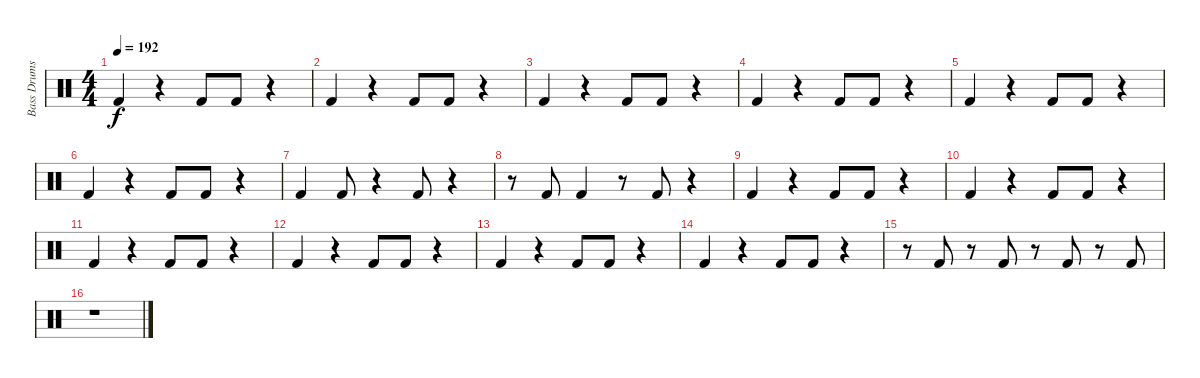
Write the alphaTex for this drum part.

\track ("Bass Drums" "Bass Drums") {instrument percussion}
\staff {score}
\articulation defaults
\ts (4 4)
\tempo 192
\clef neutral
\ks c "Kick (hit) 2".4{dy f}
r.4 "Kick (hit) 2".8 "Kick (hit) 2".8 r.4 |
"Kick (hit) 2".4 r.4 "Kick (hit) 2".8 "Kick (hit) 2".8 r.4 |
"Kick (hit) 2".4 r.4 "Kick (hit) 2".8 "Kick (hit) 2".8 r.4 |
"Kick (hit) 2".4 r.4 "Kick (hit) 2".8 "Kick (hit) 2".8 r.4 |
"Kick (hit) 2".4 r.4 "Kick (hit) 2".8 "Kick (hit) 2".8 r.4 |
"Kick (hit) 2".4 r.4 "Kick (hit) 2".8 "Kick (hit) 2".8 r.4 |
"Kick (hit) 2".4 "Kick (hit) 2".8 r.4 "Kick (hit) 2".8 r.4 |
r.8 "Kick (hit) 2".8 "Kick (hit) 2".4 r.8 "Kick (hit) 2".8 r.4 |
"Kick (hit) 2".4 r.4 "Kick (hit) 2".8 "Kick (hit) 2".8 r.4 |
"Kick (hit) 2".4 r.4 "Kick (hit) 2".8 "Kick (hit) 2".8 r.4 |
"Kick (hit) 2".4 r.4 "Kick (hit) 2".8 "Kick (hit) 2".8 r.4 |
"Kick (hit) 2".4 r.4 "Kick (hit) 2".8 "Kick (hit) 2".8 r.4 |
"Kick (hit) 2".4 r.4 "Kick (hit) 2".8 "Kick (hit) 2".8 r.4 |
"Kick (hit) 2".4 r.4 "Kick (hit) 2".8 "Kick (hit) 2".8 r.4 |
r.8 "Kick (hit) 2".8 r.8 "Kick (hit) 2".8 r.8 "Kick (hit) 2".8 r.8 "Kick (hit) 2".8 |
r.1
